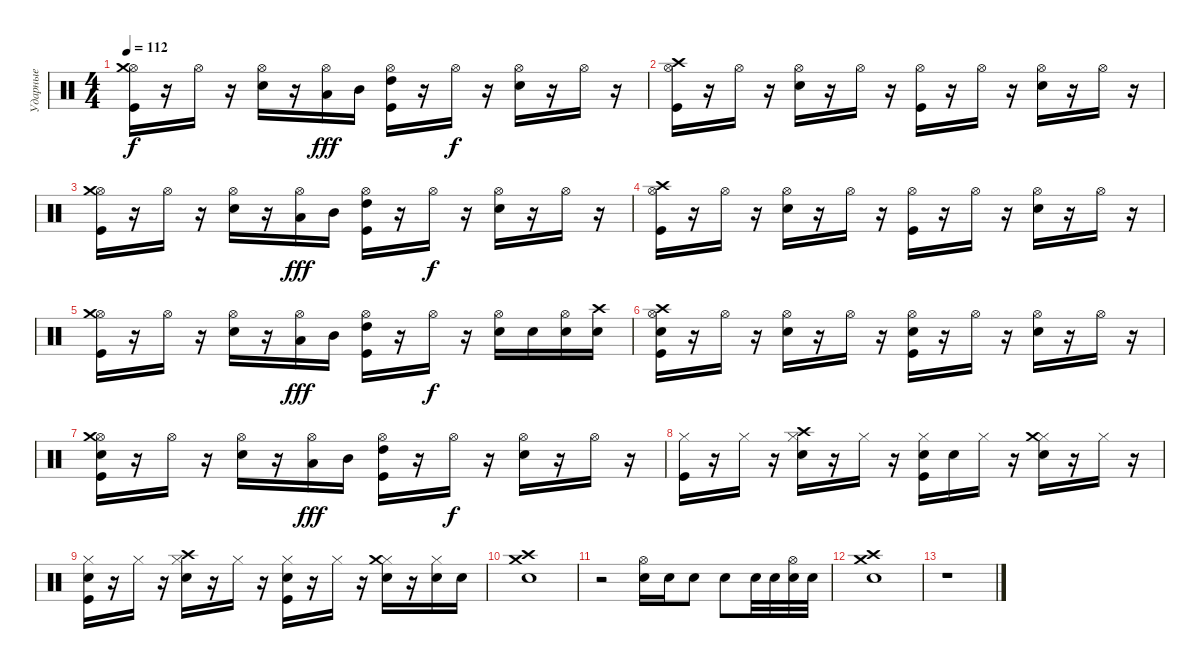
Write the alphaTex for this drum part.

\track ("Ударные" "Ударные") {instrument percussion}
\staff {score}
\articulation defaults
\ts (4 4)
\tempo 112
\clef neutral
\ks c
("Hi-Hat (open)" "Crash medium (hit)" "Kick (hit)").16{dy f} r.16 "Hi-Hat (open)".16 r.16 ("Hi-Hat (open)" "Snare (hit) 2").16 r.16 ("Hi-Hat (open)" "Low Tom (hit)").16{dy fff} "Mid Tom (hit)".16 ("Hi-Hat (open)" "High Tom (hit)" "Kick (hit)").16 r.16 "Hi-Hat (open)".16{dy f} r.16 ("Hi-Hat (open)" "Snare (hit) 2").16 r.16 "Hi-Hat (open)".16 r.16 |
("Hi-Hat (open)" "Crash high (hit)" "Kick (hit)").16 r.16 "Hi-Hat (open)".16 r.16 ("Hi-Hat (open)" "Snare (hit) 2").16 r.16 "Hi-Hat (open)".16 r.16 ("Hi-Hat (open)" "Kick (hit)").16 r.16 "Hi-Hat (open)".16 r.16 ("Hi-Hat (open)" "Snare (hit) 2").16 r.16 "Hi-Hat (open)".16 r.16 |
("Hi-Hat (open)" "Crash medium (hit)" "Kick (hit)").16 r.16 "Hi-Hat (open)".16 r.16 ("Hi-Hat (open)" "Snare (hit) 2").16 r.16 ("Hi-Hat (open)" "Low Tom (hit)").16{dy fff} "Mid Tom (hit)".16 ("Hi-Hat (open)" "High Tom (hit)" "Kick (hit)").16 r.16 "Hi-Hat (open)".16{dy f} r.16 ("Hi-Hat (open)" "Snare (hit) 2").16 r.16 "Hi-Hat (open)".16 r.16 |
("Hi-Hat (open)" "Crash high (hit)" "Kick (hit)").16 r.16 "Hi-Hat (open)".16 r.16 ("Hi-Hat (open)" "Snare (hit) 2").16 r.16 "Hi-Hat (open)".16 r.16 ("Hi-Hat (open)" "Kick (hit)").16 r.16 "Hi-Hat (open)".16 r.16 ("Hi-Hat (open)" "Snare (hit) 2").16 r.16 "Hi-Hat (open)".16 r.16 |
("Hi-Hat (open)" "Crash medium (hit)" "Kick (hit)").16 r.16 "Hi-Hat (open)".16 r.16 ("Hi-Hat (open)" "Snare (hit) 2").16 r.16 ("Hi-Hat (open)" "Low Tom (hit)").16{dy fff} "Mid Tom (hit)".16 ("Hi-Hat (open)" "High Tom (hit)" "Kick (hit)").16 r.16 "Hi-Hat (open)".16{dy f} r.16 ("Hi-Hat (open)" "Snare (hit) 2").16 "Snare (hit) 2".16 ("Hi-Hat (open)" "Snare (hit) 2").16 ("Crash high (hit)" "Snare (hit) 2").16 |
("Hi-Hat (open)" "Crash high (hit)" "Snare (hit) 2" "Kick (hit)").16 r.16 "Hi-Hat (open)".16 r.16 ("Hi-Hat (open)" "Snare (hit) 2").16 r.16 "Hi-Hat (open)".16 r.16 ("Hi-Hat (open)" "Snare (hit) 2" "Kick (hit)").16 r.16 "Hi-Hat (open)".16 r.16 ("Hi-Hat (open)" "Snare (hit) 2").16 r.16 "Hi-Hat (open)".16 r.16 |
("Hi-Hat (open)" "Crash medium (hit)" "Snare (hit) 2" "Kick (hit)").16 r.16 "Hi-Hat (open)".16 r.16 ("Hi-Hat (open)" "Snare (hit) 2").16 r.16 ("Hi-Hat (open)" "Low Tom (hit)").16{dy fff} "Mid Tom (hit)".16 ("Hi-Hat (open)" "High Tom (hit)" "Kick (hit)").16 r.16 "Hi-Hat (open)".16{dy f} r.16 ("Hi-Hat (open)" "Snare (hit) 2").16 r.16 "Hi-Hat (open)".16 r.16 |
("Hi-Hat (closed)" "Kick (hit)").16 r.16 "Hi-Hat (closed)".16 r.16 ("Hi-Hat (closed)" "Crash high (hit)" "Snare (hit) 2").16 r.16 "Hi-Hat (closed)".16 r.16 ("Hi-Hat (closed)" "Snare (hit) 2" "Kick (hit)").16 "Snare (hit) 2".16 "Hi-Hat (closed)".16 r.16 ("Hi-Hat (closed)" "Crash medium (hit)" "Snare (hit) 2").16 r.16 "Hi-Hat (closed)".16 r.16 |
("Hi-Hat (closed)" "Snare (hit) 2" "Kick (hit)").16 r.16 "Hi-Hat (closed)".16 r.16 ("Hi-Hat (closed)" "Crash high (hit)" "Snare (hit) 2").16 r.16 "Hi-Hat (closed)".16 r.16 ("Hi-Hat (closed)" "Snare (hit) 2" "Kick (hit)").16 r.16 "Hi-Hat (closed)".16 r.16 ("Hi-Hat (closed)" "Crash medium (hit)" "Snare (hit) 2").16 r.16 ("Hi-Hat (closed)" "Snare (hit) 2").16 "Snare (hit) 2".16 |
("Crash high (hit)" "Crash medium (hit)" "Snare (hit) 2").1 |
r.2 ("Snare (hit) 2" "Hi-Hat (open)").16 "Snare (hit) 2".16 "Snare (hit) 2".8 "Snare (hit) 2".8 "Snare (hit) 2".32 "Snare (hit) 2".32 ("Snare (hit) 2" "Hi-Hat (open)").32 "Snare (hit) 2".32 |
("Crash high (hit)" "Crash medium (hit)" "Snare (hit) 2").1 |
r.1
